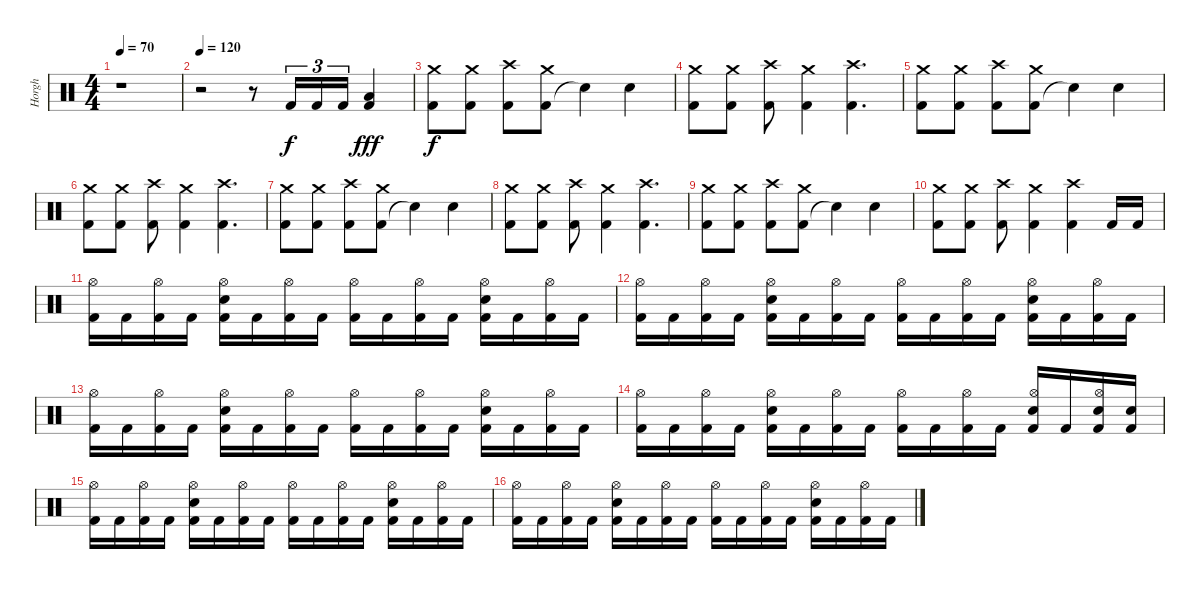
\track ("Horgh" "Horgh") {instrument percussion}
\staff {score}
\articulation defaults
\ts (4 4)
\tempo 70
\clef neutral
\ks c
r.1{dy f} |
\tempo 120
r.2 r.8 "Kick (hit) 2".16{tu (3 2)} "Kick (hit) 2".16{tu (3 2)} "Kick (hit) 2".16{tu (3 2)} ("Kick (hit) 2" "Low Tom (hit)").4{dy fff} |
("Kick (hit) 2" "Crash medium (hit)").8{dy f} ("Kick (hit) 2" "Crash medium (hit)").8 ("Kick (hit) 2" "Crash high (hit)").8 ("Kick (hit) 2" "Crash medium (hit)").8 "Snare (hit)"{t}.4 "Snare (hit) 2".4 |
("Kick (hit) 2" "Crash medium (hit)").8 ("Kick (hit) 2" "Crash medium (hit)").8 ("Kick (hit) 2" "Crash high (hit)").8 ("Kick (hit) 2" "Crash medium (hit)").4 ("Kick (hit) 2" "Crash high (hit)").4{d} |
("Kick (hit) 2" "Crash medium (hit)").8 ("Kick (hit) 2" "Crash medium (hit)").8 ("Kick (hit) 2" "Crash high (hit)").8 ("Kick (hit) 2" "Crash medium (hit)").8 "Snare (hit)"{t}.4 "Snare (hit) 2".4 |
("Kick (hit) 2" "Crash medium (hit)").8 ("Kick (hit) 2" "Crash medium (hit)").8 ("Kick (hit) 2" "Crash high (hit)").8 ("Kick (hit) 2" "Crash medium (hit)").4 ("Kick (hit) 2" "Crash high (hit)").4{d} |
("Kick (hit) 2" "Crash medium (hit)").8 ("Kick (hit) 2" "Crash medium (hit)").8 ("Kick (hit) 2" "Crash high (hit)").8 ("Kick (hit) 2" "Crash medium (hit)").8 "Snare (hit)"{t}.4 "Snare (hit) 2".4 |
("Kick (hit) 2" "Crash medium (hit)").8 ("Kick (hit) 2" "Crash medium (hit)").8 ("Kick (hit) 2" "Crash high (hit)").8 ("Kick (hit) 2" "Crash medium (hit)").4 ("Kick (hit) 2" "Crash high (hit)").4{d} |
("Kick (hit) 2" "Crash medium (hit)").8 ("Kick (hit) 2" "Crash medium (hit)").8 ("Kick (hit) 2" "Crash high (hit)").8 ("Kick (hit) 2" "Crash medium (hit)").8 "Snare (hit)"{t}.4 "Snare (hit) 2".4 |
("Kick (hit) 2" "Crash medium (hit)").8 ("Kick (hit) 2" "Crash medium (hit)").8 ("Kick (hit) 2" "Crash high (hit)").8 ("Kick (hit) 2" "Crash medium (hit)").4 ("Kick (hit) 2" "Crash high (hit)").4 "Kick (hit) 2".16 "Kick (hit) 2".16 |
("Kick (hit) 2" "Hi-Hat (open)").16 "Kick (hit) 2".16 ("Kick (hit) 2" "Hi-Hat (open)").16 "Kick (hit) 2".16 ("Kick (hit) 2" "Electric Snare (hit)" "Hi-Hat (open)").16 "Kick (hit) 2".16 ("Kick (hit) 2" "Hi-Hat (open)").16 "Kick (hit) 2".16 ("Kick (hit) 2" "Hi-Hat (open)").16 "Kick (hit) 2".16 ("Kick (hit) 2" "Hi-Hat (open)").16 "Kick (hit) 2".16 ("Kick (hit) 2" "Electric Snare (hit)" "Hi-Hat (open)").16 "Kick (hit) 2".16 ("Kick (hit) 2" "Hi-Hat (open)").16 "Kick (hit) 2".16 |
("Kick (hit) 2" "Hi-Hat (open)").16 "Kick (hit) 2".16 ("Kick (hit) 2" "Hi-Hat (open)").16 "Kick (hit) 2".16 ("Kick (hit) 2" "Electric Snare (hit)" "Hi-Hat (open)").16 "Kick (hit) 2".16 ("Kick (hit) 2" "Hi-Hat (open)").16 "Kick (hit) 2".16 ("Kick (hit) 2" "Hi-Hat (open)").16 "Kick (hit) 2".16 ("Kick (hit) 2" "Hi-Hat (open)").16 "Kick (hit) 2".16 ("Kick (hit) 2" "Electric Snare (hit)" "Hi-Hat (open)").16 "Kick (hit) 2".16 ("Kick (hit) 2" "Hi-Hat (open)").16 "Kick (hit) 2".16 |
("Kick (hit) 2" "Hi-Hat (open)").16 "Kick (hit) 2".16 ("Kick (hit) 2" "Hi-Hat (open)").16 "Kick (hit) 2".16 ("Kick (hit) 2" "Electric Snare (hit)" "Hi-Hat (open)").16 "Kick (hit) 2".16 ("Kick (hit) 2" "Hi-Hat (open)").16 "Kick (hit) 2".16 ("Kick (hit) 2" "Hi-Hat (open)").16 "Kick (hit) 2".16 ("Kick (hit) 2" "Hi-Hat (open)").16 "Kick (hit) 2".16 ("Kick (hit) 2" "Electric Snare (hit)" "Hi-Hat (open)").16 "Kick (hit) 2".16 ("Kick (hit) 2" "Hi-Hat (open)").16 "Kick (hit) 2".16 |
("Kick (hit) 2" "Hi-Hat (open)").16 "Kick (hit) 2".16 ("Kick (hit) 2" "Hi-Hat (open)").16 "Kick (hit) 2".16 ("Kick (hit) 2" "Electric Snare (hit)" "Hi-Hat (open)").16 "Kick (hit) 2".16 ("Kick (hit) 2" "Hi-Hat (open)").16 "Kick (hit) 2".16 ("Kick (hit) 2" "Hi-Hat (open)").16 "Kick (hit) 2".16 ("Kick (hit) 2" "Hi-Hat (open)").16 "Kick (hit) 2".16 ("Kick (hit) 2" "Electric Snare (hit)" "Hi-Hat (open)").16 "Kick (hit) 2".16 ("Kick (hit) 2" "Electric Snare (hit)" "Hi-Hat (open)").16 ("Kick (hit) 2" "Electric Snare (hit)").16 |
("Kick (hit) 2" "Hi-Hat (open)").16 "Kick (hit) 2".16 ("Kick (hit) 2" "Hi-Hat (open)").16 "Kick (hit) 2".16 ("Kick (hit) 2" "Electric Snare (hit)" "Hi-Hat (open)").16 "Kick (hit) 2".16 ("Kick (hit) 2" "Hi-Hat (open)").16 "Kick (hit) 2".16 ("Kick (hit) 2" "Hi-Hat (open)").16 "Kick (hit) 2".16 ("Kick (hit) 2" "Hi-Hat (open)").16 "Kick (hit) 2".16 ("Kick (hit) 2" "Electric Snare (hit)" "Hi-Hat (open)").16 "Kick (hit) 2".16 ("Kick (hit) 2" "Hi-Hat (open)").16 "Kick (hit) 2".16 |
("Kick (hit) 2" "Hi-Hat (open)").16 "Kick (hit) 2".16 ("Kick (hit) 2" "Hi-Hat (open)").16 "Kick (hit) 2".16 ("Kick (hit) 2" "Electric Snare (hit)" "Hi-Hat (open)").16 "Kick (hit) 2".16 ("Kick (hit) 2" "Hi-Hat (open)").16 "Kick (hit) 2".16 ("Kick (hit) 2" "Hi-Hat (open)").16 "Kick (hit) 2".16 ("Kick (hit) 2" "Hi-Hat (open)").16 "Kick (hit) 2".16 ("Kick (hit) 2" "Electric Snare (hit)" "Hi-Hat (open)").16 "Kick (hit) 2".16 ("Kick (hit) 2" "Hi-Hat (open)").16 "Kick (hit) 2".16
